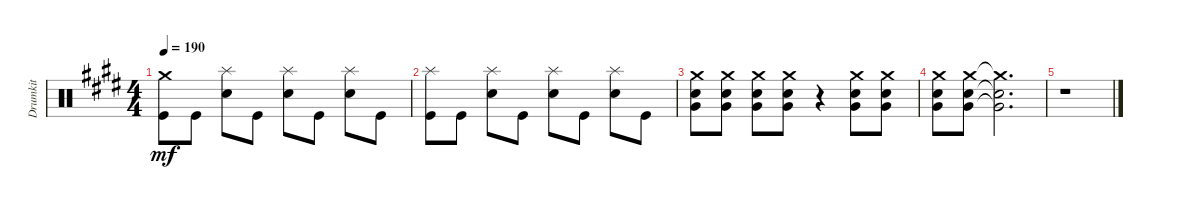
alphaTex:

\track ("Drumkit" "Drumkit") {instrument percussion}
\staff {score}
\articulation defaults
\ts (4 4)
\tempo 190
\clef neutral
\ks e
("Crash medium (hit)" "Kick (hit)").8{dy mf} "Kick (hit)".8 ("Snare (hit) 2" "Splash (hit)").8 "Kick (hit)".8 ("Snare (hit) 2" "Splash (hit)").8 "Kick (hit)".8 ("Snare (hit) 2" "Splash (hit)").8 "Kick (hit)".8 |
("Splash (hit)" "Kick (hit)").8 "Kick (hit)".8 ("Snare (hit) 2" "Splash (hit)").8 "Kick (hit)".8 ("Snare (hit) 2" "Splash (hit)").8 "Kick (hit)".8 ("Snare (hit) 2" "Splash (hit)").8 "Kick (hit)".8 |
("Snare (hit) 2" "Very Low Tom (hit)" "Crash medium (hit)").8 ("Snare (hit) 2" "Very Low Tom (hit)" "Crash medium (hit)").8 ("Snare (hit) 2" "Very Low Tom (hit)" "Crash medium (hit)").8 ("Snare (hit) 2" "Very Low Tom (hit)" "Crash medium (hit)").8 r.4 ("Snare (hit) 2" "Very Low Tom (hit)" "Crash medium (hit)").8 ("Snare (hit) 2" "Very Low Tom (hit)" "Crash medium (hit)").8 |
("Snare (hit) 2" "Very Low Tom (hit)" "Crash medium (hit)").8 ("Snare (hit) 2" "Very Low Tom (hit)" "Crash medium (hit)").8 ("Snare (hit) 2"{t} "Very Low Tom (hit)"{t} "Crash medium (hit)"{t}).2{d} |
r.1
